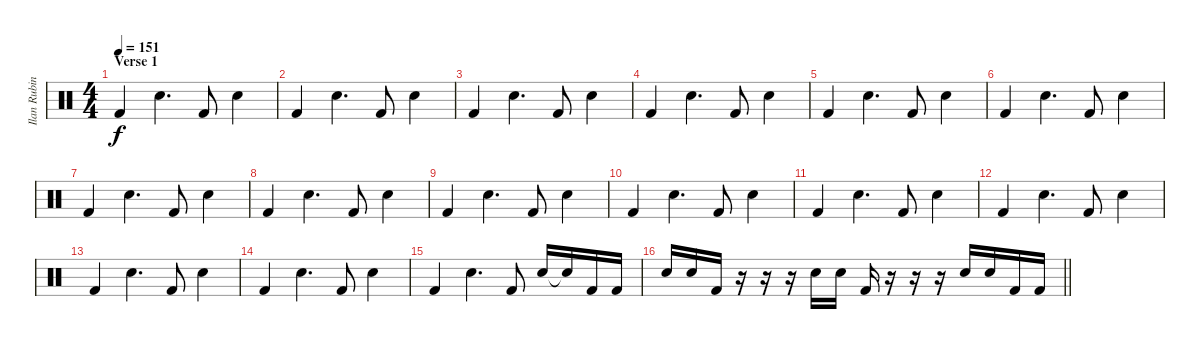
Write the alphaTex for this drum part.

\track ("Ilan Rubin [Drums]" "Ilan Rubin") {instrument percussion}
\staff {score}
\articulation defaults
\ts (4 4)
\section ("" "Verse 1")
\tempo 151
\clef neutral
\ks c "Kick (hit) 2".4{dy f} "Snare (hit) 2".4{d} "Kick (hit) 2".8 "Snare (hit) 2".4
|
"Kick (hit) 2".4 "Snare (hit) 2".4{d} "Kick (hit) 2".8 "Snare (hit) 2".4 |
"Kick (hit) 2".4 "Snare (hit) 2".4{d} "Kick (hit) 2".8 "Snare (hit) 2".4 |
"Kick (hit) 2".4 "Snare (hit) 2".4{d} "Kick (hit) 2".8 "Snare (hit) 2".4 |
"Kick (hit) 2".4 "Snare (hit) 2".4{d} "Kick (hit) 2".8 "Snare (hit) 2".4 |
"Kick (hit) 2".4 "Snare (hit) 2".4{d} "Kick (hit) 2".8 "Snare (hit) 2".4 |
"Kick (hit) 2".4 "Snare (hit) 2".4{d} "Kick (hit) 2".8 "Snare (hit) 2".4 |
"Kick (hit) 2".4 "Snare (hit) 2".4{d} "Kick (hit) 2".8 "Snare (hit) 2".4 |
"Kick (hit) 2".4 "Snare (hit) 2".4{d} "Kick (hit) 2".8 "Snare (hit) 2".4 |
"Kick (hit) 2".4 "Snare (hit) 2".4{d} "Kick (hit) 2".8 "Snare (hit) 2".4 |
"Kick (hit) 2".4 "Snare (hit) 2".4{d} "Kick (hit) 2".8 "Snare (hit) 2".4 |
"Kick (hit) 2".4 "Snare (hit) 2".4{d} "Kick (hit) 2".8 "Snare (hit) 2".4 |
"Kick (hit) 2".4 "Snare (hit) 2".4{d} "Kick (hit) 2".8 "Snare (hit) 2".4 |
"Kick (hit) 2".4 "Snare (hit) 2".4{d} "Kick (hit) 2".8 "Snare (hit) 2".4 |
"Kick (hit) 2".4 "Snare (hit) 2".4{d} "Kick (hit) 2".8 "Snare (hit) 2".16 "Snare (hit)"{t}.16 "Kick (hit) 2".16 "Kick (hit) 2".16 |
\barLineRight lightlight "Snare (hit) 2".16 "Snare (hit) 2".16 "Kick (hit) 2".16
r.16 r.16 r.16 "Snare (hit) 2".16 "Snare (hit) 2".16 "Kick (hit) 2".16 r.16 r.16 r.16 "Snare (hit) 2".16 "Snare (hit) 2".16 "Kick (hit) 2".16 "Kick (hit) 2".16
